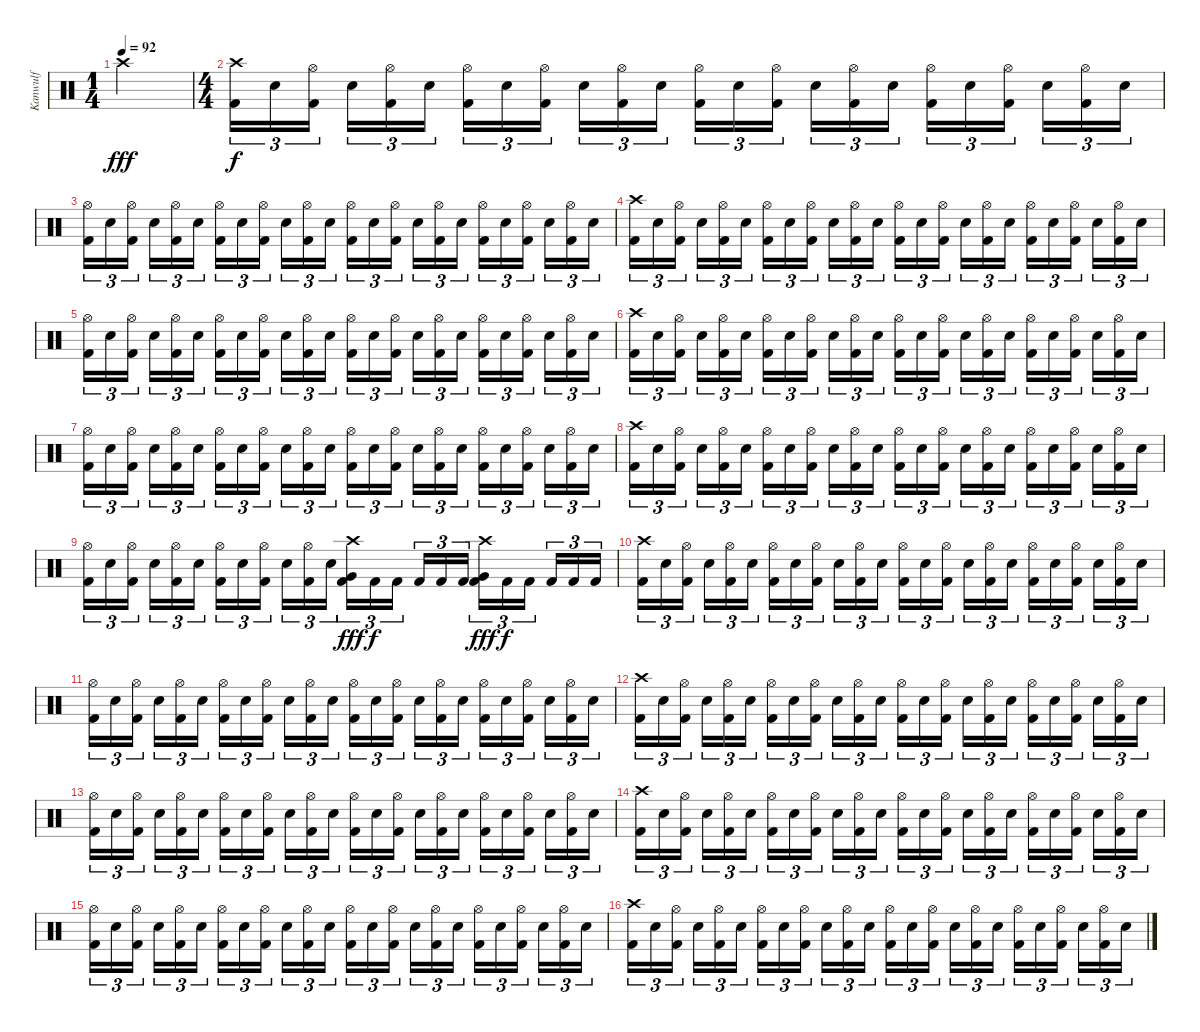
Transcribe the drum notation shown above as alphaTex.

\track ("Kanwulf" "Kanwulf") {instrument percussion}
\staff {score}
\articulation defaults
\ts (1 4)
\tempo 92
\clef neutral
\ks c "Crash high (hit)".4{dy fff}
|
\ts (4 4)
("Crash high (hit)" "Kick (hit) 2").16{tu (3 2) dy f} "Electric Snare (hit)".16{tu (3 2)} ("Hi-Hat (open)" "Kick (hit) 2").16{tu (3 2)} "Electric Snare (hit)".16{tu (3 2)} ("Hi-Hat (open)" "Kick (hit) 2").16{tu (3 2)} "Electric Snare (hit)".16{tu (3 2)} ("Hi-Hat (open)" "Kick (hit) 2").16{tu (3 2)} "Electric Snare (hit)".16{tu (3 2)} ("Hi-Hat (open)" "Kick (hit) 2").16{tu (3 2)} "Electric Snare (hit)".16{tu (3 2)} ("Hi-Hat (open)" "Kick (hit) 2").16{tu (3 2)} "Electric Snare (hit)".16{tu (3 2)} ("Hi-Hat (open)" "Kick (hit) 2").16{tu (3 2)} "Electric Snare (hit)".16{tu (3 2)} ("Hi-Hat (open)" "Kick (hit) 2").16{tu (3 2)} "Electric Snare (hit)".16{tu (3 2)} ("Hi-Hat (open)" "Kick (hit) 2").16{tu (3 2)} "Electric Snare (hit)".16{tu (3 2)} ("Hi-Hat (open)" "Kick (hit) 2").16{tu (3 2)} "Electric Snare (hit)".16{tu (3 2)} ("Hi-Hat (open)" "Kick (hit) 2").16{tu (3 2)} "Electric Snare (hit)".16{tu (3 2)} ("Hi-Hat (open)" "Kick (hit) 2").16{tu (3 2)} "Electric Snare (hit)".16{tu (3 2)} |
("Hi-Hat (open)" "Kick (hit) 2").16{tu (3 2)} "Electric Snare (hit)".16{tu (3 2)} ("Hi-Hat (open)" "Kick (hit) 2").16{tu (3 2)} "Electric Snare (hit)".16{tu (3 2)} ("Hi-Hat (open)" "Kick (hit) 2").16{tu (3 2)} "Electric Snare (hit)".16{tu (3 2)} ("Hi-Hat (open)" "Kick (hit) 2").16{tu (3 2)} "Electric Snare (hit)".16{tu (3 2)} ("Hi-Hat (open)" "Kick (hit) 2").16{tu (3 2)} "Electric Snare (hit)".16{tu (3 2)} ("Hi-Hat (open)" "Kick (hit) 2").16{tu (3 2)} "Electric Snare (hit)".16{tu (3 2)} ("Hi-Hat (open)" "Kick (hit) 2").16{tu (3 2)} "Electric Snare (hit)".16{tu (3 2)} ("Hi-Hat (open)" "Kick (hit) 2").16{tu (3 2)} "Electric Snare (hit)".16{tu (3 2)} ("Hi-Hat (open)" "Kick (hit) 2").16{tu (3 2)} "Electric Snare (hit)".16{tu (3 2)} ("Hi-Hat (open)" "Kick (hit) 2").16{tu (3 2)} "Electric Snare (hit)".16{tu (3 2)} ("Hi-Hat (open)" "Kick (hit) 2").16{tu (3 2)} "Electric Snare (hit)".16{tu (3 2)} ("Hi-Hat (open)" "Kick (hit) 2").16{tu (3 2)} "Electric Snare (hit)".16{tu (3 2)} |
("Crash high (hit)" "Kick (hit) 2").16{tu (3 2)} "Electric Snare (hit)".16{tu (3 2)} ("Hi-Hat (open)" "Kick (hit) 2").16{tu (3 2)} "Electric Snare (hit)".16{tu (3 2)} ("Hi-Hat (open)" "Kick (hit) 2").16{tu (3 2)} "Electric Snare (hit)".16{tu (3 2)} ("Hi-Hat (open)" "Kick (hit) 2").16{tu (3 2)} "Electric Snare (hit)".16{tu (3 2)} ("Hi-Hat (open)" "Kick (hit) 2").16{tu (3 2)} "Electric Snare (hit)".16{tu (3 2)} ("Hi-Hat (open)" "Kick (hit) 2").16{tu (3 2)} "Electric Snare (hit)".16{tu (3 2)} ("Hi-Hat (open)" "Kick (hit) 2").16{tu (3 2)} "Electric Snare (hit)".16{tu (3 2)} ("Hi-Hat (open)" "Kick (hit) 2").16{tu (3 2)} "Electric Snare (hit)".16{tu (3 2)} ("Hi-Hat (open)" "Kick (hit) 2").16{tu (3 2)} "Electric Snare (hit)".16{tu (3 2)} ("Hi-Hat (open)" "Kick (hit) 2").16{tu (3 2)} "Electric Snare (hit)".16{tu (3 2)} ("Hi-Hat (open)" "Kick (hit) 2").16{tu (3 2)} "Electric Snare (hit)".16{tu (3 2)} ("Hi-Hat (open)" "Kick (hit) 2").16{tu (3 2)} "Electric Snare (hit)".16{tu (3 2)} |
("Hi-Hat (open)" "Kick (hit) 2").16{tu (3 2)} "Electric Snare (hit)".16{tu (3 2)} ("Hi-Hat (open)" "Kick (hit) 2").16{tu (3 2)} "Electric Snare (hit)".16{tu (3 2)} ("Hi-Hat (open)" "Kick (hit) 2").16{tu (3 2)} "Electric Snare (hit)".16{tu (3 2)} ("Hi-Hat (open)" "Kick (hit) 2").16{tu (3 2)} "Electric Snare (hit)".16{tu (3 2)} ("Hi-Hat (open)" "Kick (hit) 2").16{tu (3 2)} "Electric Snare (hit)".16{tu (3 2)} ("Hi-Hat (open)" "Kick (hit) 2").16{tu (3 2)} "Electric Snare (hit)".16{tu (3 2)} ("Hi-Hat (open)" "Kick (hit) 2").16{tu (3 2)} "Electric Snare (hit)".16{tu (3 2)} ("Hi-Hat (open)" "Kick (hit) 2").16{tu (3 2)} "Electric Snare (hit)".16{tu (3 2)} ("Hi-Hat (open)" "Kick (hit) 2").16{tu (3 2)} "Electric Snare (hit)".16{tu (3 2)} ("Hi-Hat (open)" "Kick (hit) 2").16{tu (3 2)} "Electric Snare (hit)".16{tu (3 2)} ("Hi-Hat (open)" "Kick (hit) 2").16{tu (3 2)} "Electric Snare (hit)".16{tu (3 2)} ("Hi-Hat (open)" "Kick (hit) 2").16{tu (3 2)} "Electric Snare (hit)".16{tu (3 2)} |
("Crash high (hit)" "Kick (hit) 2").16{tu (3 2)} "Electric Snare (hit)".16{tu (3 2)} ("Hi-Hat (open)" "Kick (hit) 2").16{tu (3 2)} "Electric Snare (hit)".16{tu (3 2)} ("Hi-Hat (open)" "Kick (hit) 2").16{tu (3 2)} "Electric Snare (hit)".16{tu (3 2)} ("Hi-Hat (open)" "Kick (hit) 2").16{tu (3 2)} "Electric Snare (hit)".16{tu (3 2)} ("Hi-Hat (open)" "Kick (hit) 2").16{tu (3 2)} "Electric Snare (hit)".16{tu (3 2)} ("Hi-Hat (open)" "Kick (hit) 2").16{tu (3 2)} "Electric Snare (hit)".16{tu (3 2)} ("Hi-Hat (open)" "Kick (hit) 2").16{tu (3 2)} "Electric Snare (hit)".16{tu (3 2)} ("Hi-Hat (open)" "Kick (hit) 2").16{tu (3 2)} "Electric Snare (hit)".16{tu (3 2)} ("Hi-Hat (open)" "Kick (hit) 2").16{tu (3 2)} "Electric Snare (hit)".16{tu (3 2)} ("Hi-Hat (open)" "Kick (hit) 2").16{tu (3 2)} "Electric Snare (hit)".16{tu (3 2)} ("Hi-Hat (open)" "Kick (hit) 2").16{tu (3 2)} "Electric Snare (hit)".16{tu (3 2)} ("Hi-Hat (open)" "Kick (hit) 2").16{tu (3 2)} "Electric Snare (hit)".16{tu (3 2)} |
("Hi-Hat (open)" "Kick (hit) 2").16{tu (3 2)} "Electric Snare (hit)".16{tu (3 2)} ("Hi-Hat (open)" "Kick (hit) 2").16{tu (3 2)} "Electric Snare (hit)".16{tu (3 2)} ("Hi-Hat (open)" "Kick (hit) 2").16{tu (3 2)} "Electric Snare (hit)".16{tu (3 2)} ("Hi-Hat (open)" "Kick (hit) 2").16{tu (3 2)} "Electric Snare (hit)".16{tu (3 2)} ("Hi-Hat (open)" "Kick (hit) 2").16{tu (3 2)} "Electric Snare (hit)".16{tu (3 2)} ("Hi-Hat (open)" "Kick (hit) 2").16{tu (3 2)} "Electric Snare (hit)".16{tu (3 2)} ("Hi-Hat (open)" "Kick (hit) 2").16{tu (3 2)} "Electric Snare (hit)".16{tu (3 2)} ("Hi-Hat (open)" "Kick (hit) 2").16{tu (3 2)} "Electric Snare (hit)".16{tu (3 2)} ("Hi-Hat (open)" "Kick (hit) 2").16{tu (3 2)} "Electric Snare (hit)".16{tu (3 2)} ("Hi-Hat (open)" "Kick (hit) 2").16{tu (3 2)} "Electric Snare (hit)".16{tu (3 2)} ("Hi-Hat (open)" "Kick (hit) 2").16{tu (3 2)} "Electric Snare (hit)".16{tu (3 2)} ("Hi-Hat (open)" "Kick (hit) 2").16{tu (3 2)} "Electric Snare (hit)".16{tu (3 2)} |
("Crash high (hit)" "Kick (hit) 2").16{tu (3 2)} "Electric Snare (hit)".16{tu (3 2)} ("Hi-Hat (open)" "Kick (hit) 2").16{tu (3 2)} "Electric Snare (hit)".16{tu (3 2)} ("Hi-Hat (open)" "Kick (hit) 2").16{tu (3 2)} "Electric Snare (hit)".16{tu (3 2)} ("Hi-Hat (open)" "Kick (hit) 2").16{tu (3 2)} "Electric Snare (hit)".16{tu (3 2)} ("Hi-Hat (open)" "Kick (hit) 2").16{tu (3 2)} "Electric Snare (hit)".16{tu (3 2)} ("Hi-Hat (open)" "Kick (hit) 2").16{tu (3 2)} "Electric Snare (hit)".16{tu (3 2)} ("Hi-Hat (open)" "Kick (hit) 2").16{tu (3 2)} "Electric Snare (hit)".16{tu (3 2)} ("Hi-Hat (open)" "Kick (hit) 2").16{tu (3 2)} "Electric Snare (hit)".16{tu (3 2)} ("Hi-Hat (open)" "Kick (hit) 2").16{tu (3 2)} "Electric Snare (hit)".16{tu (3 2)} ("Hi-Hat (open)" "Kick (hit) 2").16{tu (3 2)} "Electric Snare (hit)".16{tu (3 2)} ("Hi-Hat (open)" "Kick (hit) 2").16{tu (3 2)} "Electric Snare (hit)".16{tu (3 2)} ("Hi-Hat (open)" "Kick (hit) 2").16{tu (3 2)} "Electric Snare (hit)".16{tu (3 2)} |
("Hi-Hat (open)" "Kick (hit) 2").16{tu (3 2)} "Electric Snare (hit)".16{tu (3 2)} ("Hi-Hat (open)" "Kick (hit) 2").16{tu (3 2)} "Electric Snare (hit)".16{tu (3 2)} ("Hi-Hat (open)" "Kick (hit) 2").16{tu (3 2)} "Electric Snare (hit)".16{tu (3 2)} ("Hi-Hat (open)" "Kick (hit) 2").16{tu (3 2)} "Electric Snare (hit)".16{tu (3 2)} ("Hi-Hat (open)" "Kick (hit) 2").16{tu (3 2)} "Electric Snare (hit)".16{tu (3 2)} ("Hi-Hat (open)" "Kick (hit) 2").16{tu (3 2)} "Electric Snare (hit)".16{tu (3 2)} ("Crash high (hit)" "Very Low Tom (hit)" "Kick (hit) 2").16{tu (3 2) dy fff} "Kick (hit) 2".16{tu (3 2) dy f} "Kick (hit) 2".16{tu (3 2)} "Kick (hit) 2".16{tu (3 2)} "Kick (hit) 2".16{tu (3 2)} "Kick (hit) 2".16{tu (3 2)} ("Crash high (hit)" "Very Low Tom (hit)" "Kick (hit) 2").16{tu (3 2) dy fff} "Kick (hit) 2".16{tu (3 2) dy f} "Kick (hit) 2".16{tu (3 2)} "Kick (hit) 2".16{tu (3 2)} "Kick (hit) 2".16{tu (3 2)} "Kick (hit) 2".16{tu (3 2)} |
("Crash high (hit)" "Kick (hit) 2").16{tu (3 2)} "Electric Snare (hit)".16{tu (3 2)} ("Hi-Hat (open)" "Kick (hit) 2").16{tu (3 2)} "Electric Snare (hit)".16{tu (3 2)} ("Hi-Hat (open)" "Kick (hit) 2").16{tu (3 2)} "Electric Snare (hit)".16{tu (3 2)} ("Hi-Hat (open)" "Kick (hit) 2").16{tu (3 2)} "Electric Snare (hit)".16{tu (3 2)} ("Hi-Hat (open)" "Kick (hit) 2").16{tu (3 2)} "Electric Snare (hit)".16{tu (3 2)} ("Hi-Hat (open)" "Kick (hit) 2").16{tu (3 2)} "Electric Snare (hit)".16{tu (3 2)} ("Hi-Hat (open)" "Kick (hit) 2").16{tu (3 2)} "Electric Snare (hit)".16{tu (3 2)} ("Hi-Hat (open)" "Kick (hit) 2").16{tu (3 2)} "Electric Snare (hit)".16{tu (3 2)} ("Hi-Hat (open)" "Kick (hit) 2").16{tu (3 2)} "Electric Snare (hit)".16{tu (3 2)} ("Hi-Hat (open)" "Kick (hit) 2").16{tu (3 2)} "Electric Snare (hit)".16{tu (3 2)} ("Hi-Hat (open)" "Kick (hit) 2").16{tu (3 2)} "Electric Snare (hit)".16{tu (3 2)} ("Hi-Hat (open)" "Kick (hit) 2").16{tu (3 2)} "Electric Snare (hit)".16{tu (3 2)} |
("Hi-Hat (open)" "Kick (hit) 2").16{tu (3 2)} "Electric Snare (hit)".16{tu (3 2)} ("Hi-Hat (open)" "Kick (hit) 2").16{tu (3 2)} "Electric Snare (hit)".16{tu (3 2)} ("Hi-Hat (open)" "Kick (hit) 2").16{tu (3 2)} "Electric Snare (hit)".16{tu (3 2)} ("Hi-Hat (open)" "Kick (hit) 2").16{tu (3 2)} "Electric Snare (hit)".16{tu (3 2)} ("Hi-Hat (open)" "Kick (hit) 2").16{tu (3 2)} "Electric Snare (hit)".16{tu (3 2)} ("Hi-Hat (open)" "Kick (hit) 2").16{tu (3 2)} "Electric Snare (hit)".16{tu (3 2)} ("Hi-Hat (open)" "Kick (hit) 2").16{tu (3 2)} "Electric Snare (hit)".16{tu (3 2)} ("Hi-Hat (open)" "Kick (hit) 2").16{tu (3 2)} "Electric Snare (hit)".16{tu (3 2)} ("Hi-Hat (open)" "Kick (hit) 2").16{tu (3 2)} "Electric Snare (hit)".16{tu (3 2)} ("Hi-Hat (open)" "Kick (hit) 2").16{tu (3 2)} "Electric Snare (hit)".16{tu (3 2)} ("Hi-Hat (open)" "Kick (hit) 2").16{tu (3 2)} "Electric Snare (hit)".16{tu (3 2)} ("Hi-Hat (open)" "Kick (hit) 2").16{tu (3 2)} "Electric Snare (hit)".16{tu (3 2)} |
("Crash high (hit)" "Kick (hit) 2").16{tu (3 2)} "Electric Snare (hit)".16{tu (3 2)} ("Hi-Hat (open)" "Kick (hit) 2").16{tu (3 2)} "Electric Snare (hit)".16{tu (3 2)} ("Hi-Hat (open)" "Kick (hit) 2").16{tu (3 2)} "Electric Snare (hit)".16{tu (3 2)} ("Hi-Hat (open)" "Kick (hit) 2").16{tu (3 2)} "Electric Snare (hit)".16{tu (3 2)} ("Hi-Hat (open)" "Kick (hit) 2").16{tu (3 2)} "Electric Snare (hit)".16{tu (3 2)} ("Hi-Hat (open)" "Kick (hit) 2").16{tu (3 2)} "Electric Snare (hit)".16{tu (3 2)} ("Hi-Hat (open)" "Kick (hit) 2").16{tu (3 2)} "Electric Snare (hit)".16{tu (3 2)} ("Hi-Hat (open)" "Kick (hit) 2").16{tu (3 2)} "Electric Snare (hit)".16{tu (3 2)} ("Hi-Hat (open)" "Kick (hit) 2").16{tu (3 2)} "Electric Snare (hit)".16{tu (3 2)} ("Hi-Hat (open)" "Kick (hit) 2").16{tu (3 2)} "Electric Snare (hit)".16{tu (3 2)} ("Hi-Hat (open)" "Kick (hit) 2").16{tu (3 2)} "Electric Snare (hit)".16{tu (3 2)} ("Hi-Hat (open)" "Kick (hit) 2").16{tu (3 2)} "Electric Snare (hit)".16{tu (3 2)} |
("Hi-Hat (open)" "Kick (hit) 2").16{tu (3 2)} "Electric Snare (hit)".16{tu (3 2)} ("Hi-Hat (open)" "Kick (hit) 2").16{tu (3 2)} "Electric Snare (hit)".16{tu (3 2)} ("Hi-Hat (open)" "Kick (hit) 2").16{tu (3 2)} "Electric Snare (hit)".16{tu (3 2)} ("Hi-Hat (open)" "Kick (hit) 2").16{tu (3 2)} "Electric Snare (hit)".16{tu (3 2)} ("Hi-Hat (open)" "Kick (hit) 2").16{tu (3 2)} "Electric Snare (hit)".16{tu (3 2)} ("Hi-Hat (open)" "Kick (hit) 2").16{tu (3 2)} "Electric Snare (hit)".16{tu (3 2)} ("Hi-Hat (open)" "Kick (hit) 2").16{tu (3 2)} "Electric Snare (hit)".16{tu (3 2)} ("Hi-Hat (open)" "Kick (hit) 2").16{tu (3 2)} "Electric Snare (hit)".16{tu (3 2)} ("Hi-Hat (open)" "Kick (hit) 2").16{tu (3 2)} "Electric Snare (hit)".16{tu (3 2)} ("Hi-Hat (open)" "Kick (hit) 2").16{tu (3 2)} "Electric Snare (hit)".16{tu (3 2)} ("Hi-Hat (open)" "Kick (hit) 2").16{tu (3 2)} "Electric Snare (hit)".16{tu (3 2)} ("Hi-Hat (open)" "Kick (hit) 2").16{tu (3 2)} "Electric Snare (hit)".16{tu (3 2)} |
("Crash high (hit)" "Kick (hit) 2").16{tu (3 2)} "Electric Snare (hit)".16{tu (3 2)} ("Hi-Hat (open)" "Kick (hit) 2").16{tu (3 2)} "Electric Snare (hit)".16{tu (3 2)} ("Hi-Hat (open)" "Kick (hit) 2").16{tu (3 2)} "Electric Snare (hit)".16{tu (3 2)} ("Hi-Hat (open)" "Kick (hit) 2").16{tu (3 2)} "Electric Snare (hit)".16{tu (3 2)} ("Hi-Hat (open)" "Kick (hit) 2").16{tu (3 2)} "Electric Snare (hit)".16{tu (3 2)} ("Hi-Hat (open)" "Kick (hit) 2").16{tu (3 2)} "Electric Snare (hit)".16{tu (3 2)} ("Hi-Hat (open)" "Kick (hit) 2").16{tu (3 2)} "Electric Snare (hit)".16{tu (3 2)} ("Hi-Hat (open)" "Kick (hit) 2").16{tu (3 2)} "Electric Snare (hit)".16{tu (3 2)} ("Hi-Hat (open)" "Kick (hit) 2").16{tu (3 2)} "Electric Snare (hit)".16{tu (3 2)} ("Hi-Hat (open)" "Kick (hit) 2").16{tu (3 2)} "Electric Snare (hit)".16{tu (3 2)} ("Hi-Hat (open)" "Kick (hit) 2").16{tu (3 2)} "Electric Snare (hit)".16{tu (3 2)} ("Hi-Hat (open)" "Kick (hit) 2").16{tu (3 2)} "Electric Snare (hit)".16{tu (3 2)} |
("Hi-Hat (open)" "Kick (hit) 2").16{tu (3 2)} "Electric Snare (hit)".16{tu (3 2)} ("Hi-Hat (open)" "Kick (hit) 2").16{tu (3 2)} "Electric Snare (hit)".16{tu (3 2)} ("Hi-Hat (open)" "Kick (hit) 2").16{tu (3 2)} "Electric Snare (hit)".16{tu (3 2)} ("Hi-Hat (open)" "Kick (hit) 2").16{tu (3 2)} "Electric Snare (hit)".16{tu (3 2)} ("Hi-Hat (open)" "Kick (hit) 2").16{tu (3 2)} "Electric Snare (hit)".16{tu (3 2)} ("Hi-Hat (open)" "Kick (hit) 2").16{tu (3 2)} "Electric Snare (hit)".16{tu (3 2)} ("Hi-Hat (open)" "Kick (hit) 2").16{tu (3 2)} "Electric Snare (hit)".16{tu (3 2)} ("Hi-Hat (open)" "Kick (hit) 2").16{tu (3 2)} "Electric Snare (hit)".16{tu (3 2)} ("Hi-Hat (open)" "Kick (hit) 2").16{tu (3 2)} "Electric Snare (hit)".16{tu (3 2)} ("Hi-Hat (open)" "Kick (hit) 2").16{tu (3 2)} "Electric Snare (hit)".16{tu (3 2)} ("Hi-Hat (open)" "Kick (hit) 2").16{tu (3 2)} "Electric Snare (hit)".16{tu (3 2)} ("Hi-Hat (open)" "Kick (hit) 2").16{tu (3 2)} "Electric Snare (hit)".16{tu (3 2)} |
("Crash high (hit)" "Kick (hit) 2").16{tu (3 2)} "Electric Snare (hit)".16{tu (3 2)} ("Hi-Hat (open)" "Kick (hit) 2").16{tu (3 2)} "Electric Snare (hit)".16{tu (3 2)} ("Hi-Hat (open)" "Kick (hit) 2").16{tu (3 2)} "Electric Snare (hit)".16{tu (3 2)} ("Hi-Hat (open)" "Kick (hit) 2").16{tu (3 2)} "Electric Snare (hit)".16{tu (3 2)} ("Hi-Hat (open)" "Kick (hit) 2").16{tu (3 2)} "Electric Snare (hit)".16{tu (3 2)} ("Hi-Hat (open)" "Kick (hit) 2").16{tu (3 2)} "Electric Snare (hit)".16{tu (3 2)} ("Hi-Hat (open)" "Kick (hit) 2").16{tu (3 2)} "Electric Snare (hit)".16{tu (3 2)} ("Hi-Hat (open)" "Kick (hit) 2").16{tu (3 2)} "Electric Snare (hit)".16{tu (3 2)} ("Hi-Hat (open)" "Kick (hit) 2").16{tu (3 2)} "Electric Snare (hit)".16{tu (3 2)} ("Hi-Hat (open)" "Kick (hit) 2").16{tu (3 2)} "Electric Snare (hit)".16{tu (3 2)} ("Hi-Hat (open)" "Kick (hit) 2").16{tu (3 2)} "Electric Snare (hit)".16{tu (3 2)} ("Hi-Hat (open)" "Kick (hit) 2").16{tu (3 2)} "Electric Snare (hit)".16{tu (3 2)}
